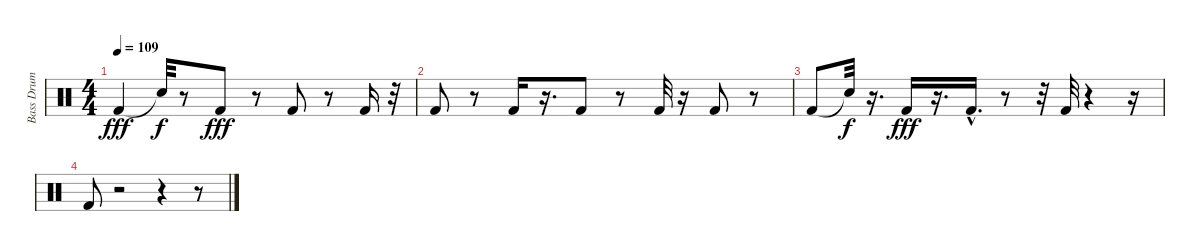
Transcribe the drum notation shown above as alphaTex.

\track ("Bass Drum       " "Bass Drum ") {instrument percussion}
\staff {score}
\articulation defaults
\ts (4 4)
\tempo 109
\clef neutral
\ks c "Kick (hit) 2".4{dy fff} "Snare (hit)"{t}.32{dy f}
r.8 "Kick (hit) 2".8{dy fff} r.8 "Kick (hit) 2".8 r.8 "Kick (hit) 2".16 r.32 |
"Kick (hit) 2".8 r.8 "Kick (hit) 2".16 r.16{d} "Kick (hit) 2".8 r.8 "Kick (hit) 2".32 r.16 "Kick (hit) 2".8 r.8 |
"Kick (hit) 2".8 "Snare (hit)"{t}.32{dy f} r.16{d} "Kick (hit) 2".16{dy fff} r.16{d} "Kick (hit) 2"{hac}.16{d} r.8 r.32 "Kick (hit) 2".32 r.4 r.16 |
"Kick (hit) 2".8 r.2 r.4 r.8
